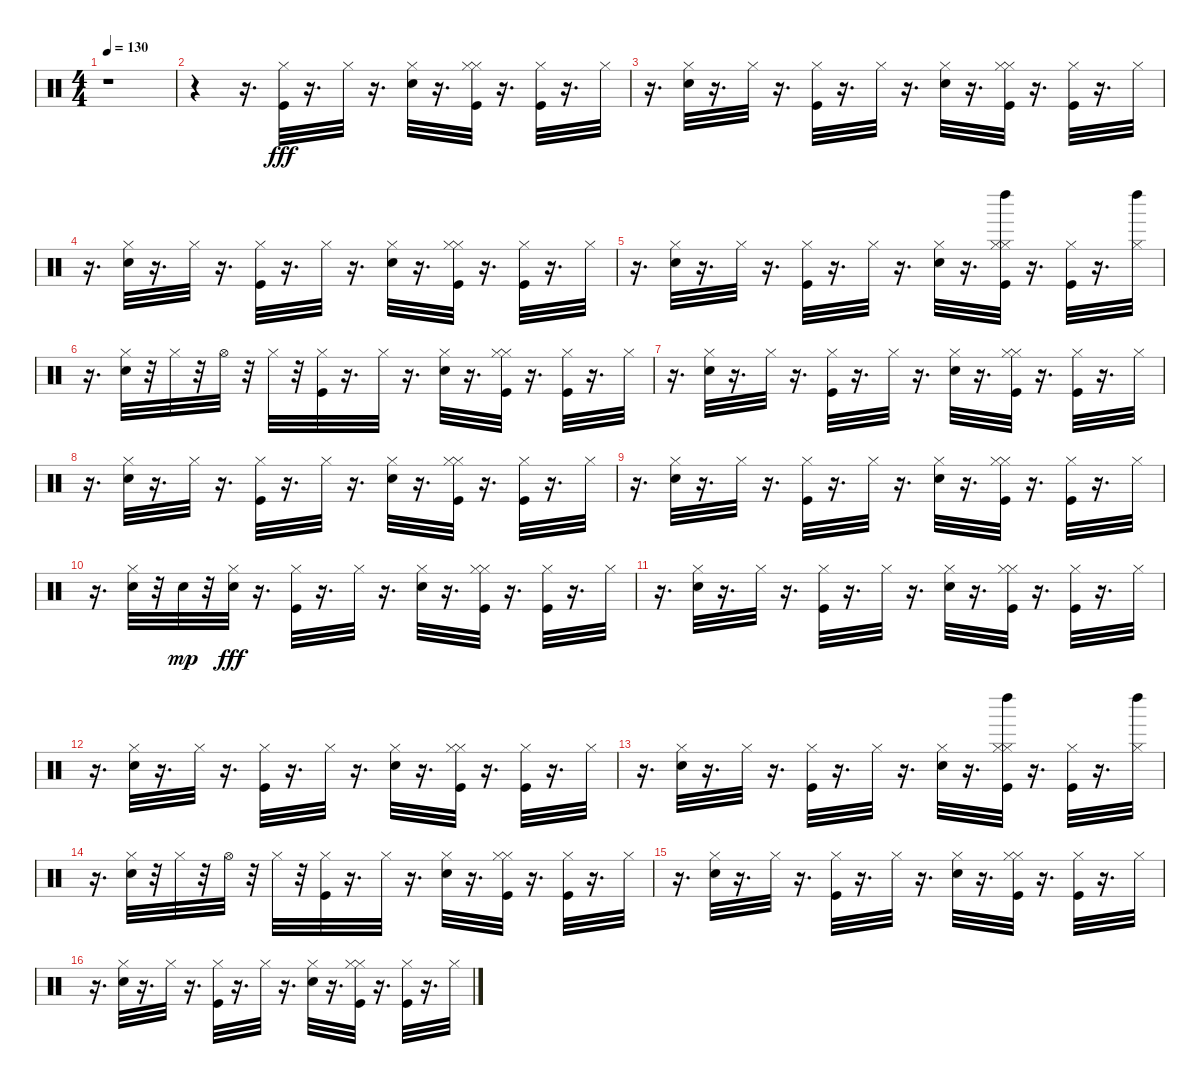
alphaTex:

\track "" {instrument percussion}
\staff {score}
\articulation defaults
\ts (4 4)
\tempo 130
\clef neutral
\ks c
r.1{dy fff} |
r.4 r.16{d} ("Hi-Hat (closed)" "Kick (hit)").32 r.16{d} "Hi-Hat (closed)".32 r.16{d} ("Hi-Hat (closed)" "Electric Snare (hit)").32 r.16{d} ("Hi-Hat (closed)" "Hi-Hat (closed)" "Kick (hit)").32 r.16{d} ("Hi-Hat (closed)" "Kick (hit)").32 r.16{d} "Hi-Hat (closed)".32 |
r.16{d} ("Hi-Hat (closed)" "Electric Snare (hit)").32 r.16{d} "Hi-Hat (closed)".32 r.16{d} ("Hi-Hat (closed)" "Kick (hit)").32 r.16{d} "Hi-Hat (closed)".32 r.16{d} ("Hi-Hat (closed)" "Electric Snare (hit)").32 r.16{d} ("Hi-Hat (closed)" "Hi-Hat (closed)" "Kick (hit)").32 r.16{d} ("Hi-Hat (closed)" "Kick (hit)").32 r.16{d} "Hi-Hat (closed)".32 |
r.16{d} ("Hi-Hat (closed)" "Electric Snare (hit)").32 r.16{d} "Hi-Hat (closed)".32 r.16{d} ("Hi-Hat (closed)" "Kick (hit)").32 r.16{d} "Hi-Hat (closed)".32 r.16{d} ("Hi-Hat (closed)" "Electric Snare (hit)").32 r.16{d} ("Hi-Hat (closed)" "Hi-Hat (closed)" "Kick (hit)").32 r.16{d} ("Hi-Hat (closed)" "Kick (hit)").32 r.16{d} "Hi-Hat (closed)".32 |
r.16{d} ("Hi-Hat (closed)" "Electric Snare (hit)").32 r.16{d} "Hi-Hat (closed)".32 r.16{d} ("Hi-Hat (closed)" "Kick (hit)").32 r.16{d} "Hi-Hat (closed)".32 r.16{d} ("Hi-Hat (closed)" "Electric Snare (hit)").32 r.16{d} ("Hi-Hat (closed)" "Left Maraca (hit)" "Hi-Hat (closed)" "Kick (hit)").32 r.16{d} ("Hi-Hat (closed)" "Kick (hit)").32 r.16{d} ("Left Maraca (hit)" "Hi-Hat (closed)").32 |
r.16{d} ("Hi-Hat (closed)" "Electric Snare (hit)").32 r.32 "Hi-Hat (closed)".32 r.32 "Hi-Hat (open)".32 r.32 "Hi-Hat (closed)".32 r.32 ("Hi-Hat (closed)" "Kick (hit)").32 r.16{d} "Hi-Hat (closed)".32 r.16{d} ("Hi-Hat (closed)" "Electric Snare (hit)").32 r.16{d} ("Hi-Hat (closed)" "Hi-Hat (closed)" "Kick (hit)").32 r.16{d} ("Hi-Hat (closed)" "Kick (hit)").32 r.16{d} "Hi-Hat (closed)".32 |
r.16{d} ("Hi-Hat (closed)" "Electric Snare (hit)").32 r.16{d} "Hi-Hat (closed)".32 r.16{d} ("Hi-Hat (closed)" "Kick (hit)").32 r.16{d} "Hi-Hat (closed)".32 r.16{d} ("Hi-Hat (closed)" "Electric Snare (hit)").32 r.16{d} ("Hi-Hat (closed)" "Hi-Hat (closed)" "Kick (hit)").32 r.16{d} ("Hi-Hat (closed)" "Kick (hit)").32 r.16{d} "Hi-Hat (closed)".32 |
r.16{d} ("Hi-Hat (closed)" "Electric Snare (hit)").32 r.16{d} "Hi-Hat (closed)".32 r.16{d} ("Hi-Hat (closed)" "Kick (hit)").32 r.16{d} "Hi-Hat (closed)".32 r.16{d} ("Hi-Hat (closed)" "Electric Snare (hit)").32 r.16{d} ("Hi-Hat (closed)" "Hi-Hat (closed)" "Kick (hit)").32 r.16{d} ("Hi-Hat (closed)" "Kick (hit)").32 r.16{d} "Hi-Hat (closed)".32 |
r.16{d} ("Hi-Hat (closed)" "Electric Snare (hit)").32 r.16{d} "Hi-Hat (closed)".32 r.16{d} ("Hi-Hat (closed)" "Kick (hit)").32 r.16{d} "Hi-Hat (closed)".32 r.16{d} ("Hi-Hat (closed)" "Electric Snare (hit)").32 r.16{d} ("Hi-Hat (closed)" "Hi-Hat (closed)" "Kick (hit)").32 r.16{d} ("Hi-Hat (closed)" "Kick (hit)").32 r.16{d} "Hi-Hat (closed)".32 |
r.16{d} ("Hi-Hat (closed)" "Electric Snare (hit)").32 r.32 "Snare (hit) 2".32{dy mp} r.32 ("Snare (hit) 2" "Hi-Hat (closed)").32{dy fff} r.16{d} ("Hi-Hat (closed)" "Kick (hit)").32 r.16{d} "Hi-Hat (closed)".32 r.16{d} ("Hi-Hat (closed)" "Electric Snare (hit)").32 r.16{d} ("Hi-Hat (closed)" "Hi-Hat (closed)" "Kick (hit)").32 r.16{d} ("Hi-Hat (closed)" "Kick (hit)").32 r.16{d} "Hi-Hat (closed)".32 |
r.16{d} ("Hi-Hat (closed)" "Electric Snare (hit)").32 r.16{d} "Hi-Hat (closed)".32 r.16{d} ("Hi-Hat (closed)" "Kick (hit)").32 r.16{d} "Hi-Hat (closed)".32 r.16{d} ("Hi-Hat (closed)" "Electric Snare (hit)").32 r.16{d} ("Hi-Hat (closed)" "Hi-Hat (closed)" "Kick (hit)").32 r.16{d} ("Hi-Hat (closed)" "Kick (hit)").32 r.16{d} "Hi-Hat (closed)".32 |
r.16{d} ("Hi-Hat (closed)" "Electric Snare (hit)").32 r.16{d} "Hi-Hat (closed)".32 r.16{d} ("Hi-Hat (closed)" "Kick (hit)").32 r.16{d} "Hi-Hat (closed)".32 r.16{d} ("Hi-Hat (closed)" "Electric Snare (hit)").32 r.16{d} ("Hi-Hat (closed)" "Hi-Hat (closed)" "Kick (hit)").32 r.16{d} ("Hi-Hat (closed)" "Kick (hit)").32 r.16{d} "Hi-Hat (closed)".32 |
r.16{d} ("Hi-Hat (closed)" "Electric Snare (hit)").32 r.16{d} "Hi-Hat (closed)".32 r.16{d} ("Hi-Hat (closed)" "Kick (hit)").32 r.16{d} "Hi-Hat (closed)".32 r.16{d} ("Hi-Hat (closed)" "Electric Snare (hit)").32 r.16{d} ("Hi-Hat (closed)" "Left Maraca (hit)" "Hi-Hat (closed)" "Kick (hit)").32 r.16{d} ("Hi-Hat (closed)" "Kick (hit)").32 r.16{d} ("Left Maraca (hit)" "Hi-Hat (closed)").32 |
r.16{d} ("Hi-Hat (closed)" "Electric Snare (hit)").32 r.32 "Hi-Hat (closed)".32 r.32 "Hi-Hat (open)".32 r.32 "Hi-Hat (closed)".32 r.32 ("Hi-Hat (closed)" "Kick (hit)").32 r.16{d} "Hi-Hat (closed)".32 r.16{d} ("Hi-Hat (closed)" "Electric Snare (hit)").32 r.16{d} ("Hi-Hat (closed)" "Hi-Hat (closed)" "Kick (hit)").32 r.16{d} ("Hi-Hat (closed)" "Kick (hit)").32 r.16{d} "Hi-Hat (closed)".32 |
r.16{d} ("Hi-Hat (closed)" "Electric Snare (hit)").32 r.16{d} "Hi-Hat (closed)".32 r.16{d} ("Hi-Hat (closed)" "Kick (hit)").32 r.16{d} "Hi-Hat (closed)".32 r.16{d} ("Hi-Hat (closed)" "Electric Snare (hit)").32 r.16{d} ("Hi-Hat (closed)" "Hi-Hat (closed)" "Kick (hit)").32 r.16{d} ("Hi-Hat (closed)" "Kick (hit)").32 r.16{d} "Hi-Hat (closed)".32 |
r.16{d} ("Hi-Hat (closed)" "Electric Snare (hit)").32 r.16{d} "Hi-Hat (closed)".32 r.16{d} ("Hi-Hat (closed)" "Kick (hit)").32 r.16{d} "Hi-Hat (closed)".32 r.16{d} ("Hi-Hat (closed)" "Electric Snare (hit)").32 r.16{d} ("Hi-Hat (closed)" "Hi-Hat (closed)" "Kick (hit)").32 r.16{d} ("Hi-Hat (closed)" "Kick (hit)").32 r.16{d} "Hi-Hat (closed)".32
